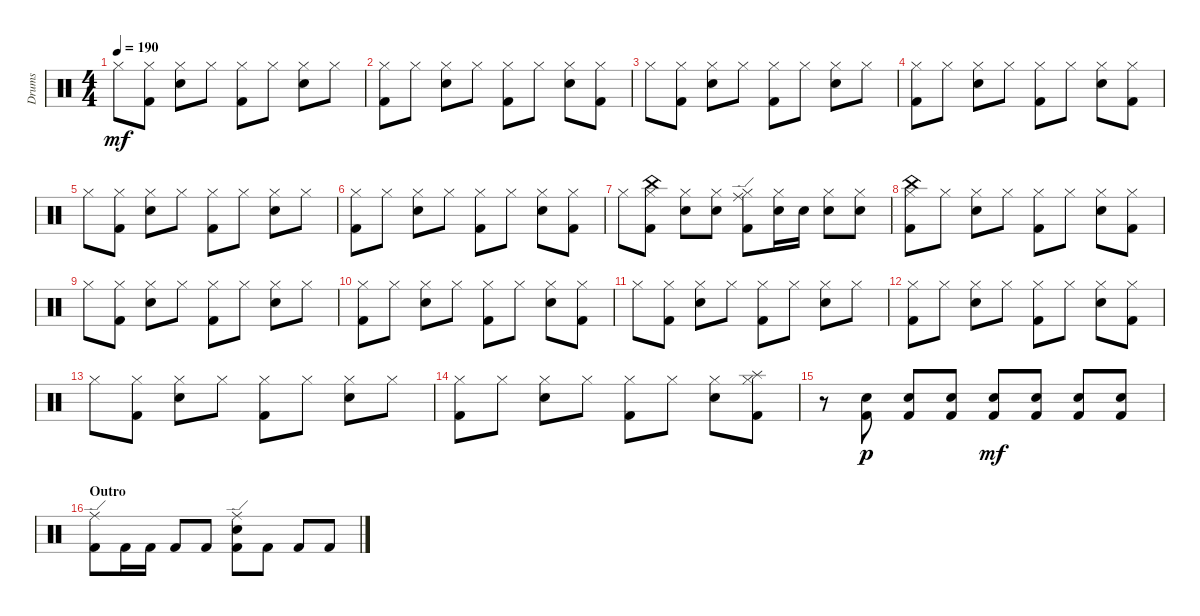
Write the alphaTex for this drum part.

\defaultSystemsLayout 4
\bracketExtendMode groupsimilarinstruments
\otherSystemsTrackNameOrientation horizontal
\track ("Prakarsh" "Drums") {instrument percussion}
\staff {score}
\articulation defaults
\ts (4 4)
\tempo 190
\clef neutral
\ks c "Hi-Hat (closed)".8{dy mf beam Down}
("Hi-Hat (closed)" "Kick (hit) 2").8{beam Down} ("Hi-Hat (closed)" "Snare (hit) 2").8{beam Down} "Hi-Hat (closed)".8{beam Down} ("Hi-Hat (closed)" "Kick (hit) 2").8{beam Down} "Hi-Hat (closed)".8{beam Down} ("Hi-Hat (closed)" "Snare (hit) 2").8{beam Down} "Hi-Hat (closed)".8{beam Down} |
("Kick (hit) 2" "Hi-Hat (closed)").8{beam Down} "Hi-Hat (closed)".8{beam Down} ("Hi-Hat (closed)" "Snare (hit) 2").8{beam Down} "Hi-Hat (closed)".8{beam Down} ("Hi-Hat (closed)" "Kick (hit) 2").8{beam Down} "Hi-Hat (closed)".8{beam Down} ("Hi-Hat (closed)" "Snare (hit) 2").8{beam Down} ("Hi-Hat (closed)" "Kick (hit) 2").8{beam Down} |
"Hi-Hat (closed)".8{beam Down} ("Hi-Hat (closed)" "Kick (hit) 2").8{beam Down} ("Hi-Hat (closed)" "Snare (hit) 2").8{beam Down} "Hi-Hat (closed)".8{beam Down} ("Hi-Hat (closed)" "Kick (hit) 2").8{beam Down} "Hi-Hat (closed)".8{beam Down} ("Hi-Hat (closed)" "Snare (hit) 2").8{beam Down} "Hi-Hat (closed)".8{beam Down} |
("Kick (hit) 2" "Hi-Hat (closed)").8{beam Down} "Hi-Hat (closed)".8{beam Down} ("Hi-Hat (closed)" "Snare (hit) 2").8{beam Down} "Hi-Hat (closed)".8{beam Down} ("Hi-Hat (closed)" "Kick (hit) 2").8{beam Down} "Hi-Hat (closed)".8{beam Down} ("Hi-Hat (closed)" "Snare (hit) 2").8{beam Down} ("Hi-Hat (closed)" "Kick (hit) 2").8{beam Down} |
"Hi-Hat (closed)".8{beam Down} ("Hi-Hat (closed)" "Kick (hit) 2").8{beam Down} ("Hi-Hat (closed)" "Snare (hit) 2").8{beam Down} "Hi-Hat (closed)".8{beam Down} ("Hi-Hat (closed)" "Kick (hit) 2").8{beam Down} "Hi-Hat (closed)".8{beam Down} ("Hi-Hat (closed)" "Snare (hit) 2").8{beam Down} "Hi-Hat (closed)".8{beam Down} |
("Kick (hit) 2" "Hi-Hat (closed)").8{beam Down} "Hi-Hat (closed)".8{beam Down} ("Hi-Hat (closed)" "Snare (hit) 2").8{beam Down} "Hi-Hat (closed)".8{beam Down} ("Hi-Hat (closed)" "Kick (hit) 2").8{beam Down} "Hi-Hat (closed)".8{beam Down} ("Snare (hit) 2" "Hi-Hat (closed)").8{beam Down} ("Kick (hit) 2" "Hi-Hat (closed)").8{beam Down} |
"Hi-Hat (closed)".8{beam Down} ("Hi-Hat (closed)" "Kick (hit) 2" "China (hit)").8{beam Down} ("Hi-Hat (closed)" "Snare (hit) 2").8{beam Down} ("Hi-Hat (closed)" "Snare (hit) 2").8{beam Down} ("Hi-Hat (closed)" "Kick (hit) 2" "Ride (edge)").8{beam Down} ("Hi-Hat (closed)" "Snare (hit) 2").16{beam Down} "Snare (hit) 2".16{beam Down} ("Hi-Hat (closed)" "Snare (hit) 2").8{beam Down} ("Hi-Hat (closed)" "Snare (hit) 2").8{beam Down} |
("Kick (hit) 2" "Hi-Hat (closed)" "China (hit)").8{beam Down} "Hi-Hat (closed)".8{beam Down} ("Hi-Hat (closed)" "Snare (hit) 2").8{beam Down} "Hi-Hat (closed)".8{beam Down} ("Hi-Hat (closed)" "Kick (hit) 2").8{beam Down} "Hi-Hat (closed)".8{beam Down} ("Hi-Hat (closed)" "Snare (hit) 2").8{beam Down} ("Hi-Hat (closed)" "Kick (hit) 2").8{beam Down} |
"Hi-Hat (closed)".8{beam Down} ("Hi-Hat (closed)" "Kick (hit) 2").8{beam Down} ("Hi-Hat (closed)" "Snare (hit) 2").8{beam Down} "Hi-Hat (closed)".8{beam Down} ("Hi-Hat (closed)" "Kick (hit) 2").8{beam Down} "Hi-Hat (closed)".8{beam Down} ("Hi-Hat (closed)" "Snare (hit) 2").8{beam Down} "Hi-Hat (closed)".8{beam Down} |
("Kick (hit) 2" "Hi-Hat (closed)").8{beam Down} "Hi-Hat (closed)".8{beam Down} ("Hi-Hat (closed)" "Snare (hit) 2").8{beam Down} "Hi-Hat (closed)".8{beam Down} ("Hi-Hat (closed)" "Kick (hit) 2").8{beam Down} "Hi-Hat (closed)".8{beam Down} ("Hi-Hat (closed)" "Snare (hit) 2").8{beam Down} ("Hi-Hat (closed)" "Kick (hit) 2").8{beam Down} |
"Hi-Hat (closed)".8{beam Down} ("Hi-Hat (closed)" "Kick (hit) 2").8{beam Down} ("Hi-Hat (closed)" "Snare (hit) 2").8{beam Down} "Hi-Hat (closed)".8{beam Down} ("Hi-Hat (closed)" "Kick (hit) 2").8{beam Down} "Hi-Hat (closed)".8{beam Down} ("Hi-Hat (closed)" "Snare (hit) 2").8{beam Down} "Hi-Hat (closed)".8{beam Down} |
("Kick (hit) 2" "Hi-Hat (closed)").8{beam Down} "Hi-Hat (closed)".8{beam Down} ("Hi-Hat (closed)" "Snare (hit) 2").8{beam Down} "Hi-Hat (closed)".8{beam Down} ("Hi-Hat (closed)" "Kick (hit) 2").8{beam Down} "Hi-Hat (closed)".8{beam Down} ("Hi-Hat (closed)" "Snare (hit) 2").8{beam Down} ("Hi-Hat (closed)" "Kick (hit) 2").8{beam Down} |
"Hi-Hat (closed)".8{beam Down} ("Hi-Hat (closed)" "Kick (hit) 2").8{beam Down} ("Hi-Hat (closed)" "Snare (hit) 2").8{beam Down} "Hi-Hat (closed)".8{beam Down} ("Hi-Hat (closed)" "Kick (hit) 2").8{beam Down} "Hi-Hat (closed)".8{beam Down} ("Hi-Hat (closed)" "Snare (hit) 2").8{beam Down} "Hi-Hat (closed)".8{beam Down} |
("Kick (hit) 2" "Hi-Hat (closed)").8{beam Down} "Hi-Hat (closed)".8{beam Down} ("Hi-Hat (closed)" "Snare (hit) 2").8{beam Down} "Hi-Hat (closed)".8{beam Down} ("Hi-Hat (closed)" "Kick (hit) 2").8{beam Down} "Hi-Hat (closed)".8{beam Down} ("Hi-Hat (closed)" "Snare (hit) 2").8{beam Down} ("Hi-Hat (closed)" "Kick (hit) 2" "Splash (hit)").8{beam Down} |
r.8{beam Down} ("Kick (hit) 2" "Snare (hit) 2").8{dy p beam Up} ("Kick (hit) 2" "Snare (hit) 2").8{beam Up} ("Kick (hit) 2" "Snare (hit) 2").8{beam Up} ("Kick (hit) 2" "Snare (hit) 2").8{dy mf beam Up} ("Kick (hit) 2" "Snare (hit) 2").8{beam Up} ("Kick (hit) 2" "Snare (hit) 2").8{beam Up} ("Kick (hit) 2" "Snare (hit) 2").8{beam Up} |
\section ("" "Outro")
("Kick (hit) 2" "Ride (edge)").8{beam Down} "Kick (hit) 2".16{beam Down} "Kick (hit) 2".16{beam Down} "Kick (hit) 2".8{beam Up} "Kick (hit) 2".8{beam Up} ("Kick (hit) 2" "Ride (edge)" "Snare (hit) 2").8{beam Down} "Kick (hit) 2".8{beam Down} "Kick (hit) 2".8{beam Up} "Kick (hit) 2".8{beam Up}
